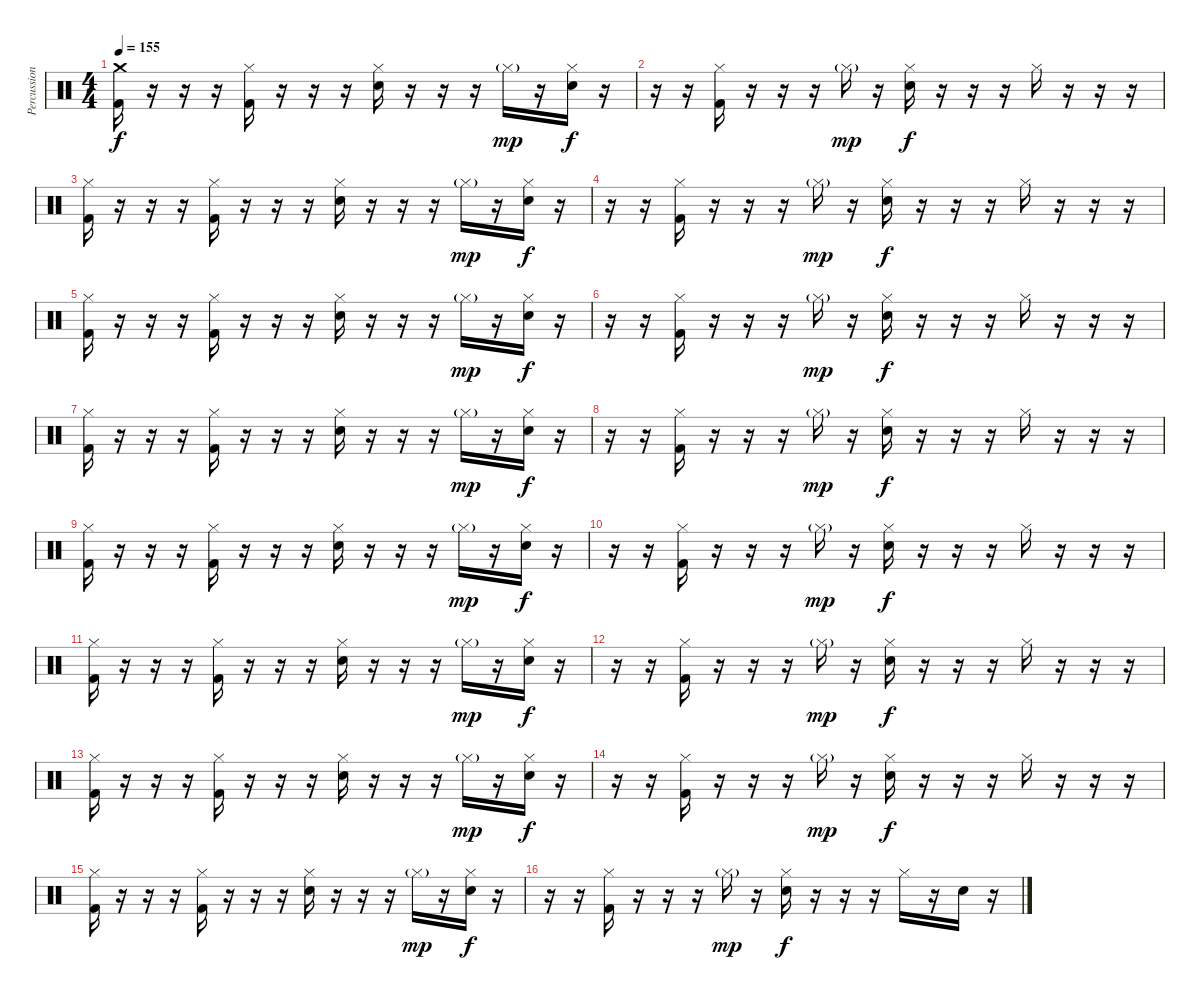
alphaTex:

\track ("Percussion" "Percussion") {instrument percussion}
\staff {score}
\articulation defaults
\ts (4 4)
\section ("" "")
\tempo 155
\clef neutral
\ks c
("Crash medium (hit)" "Kick (hit) 2").16{dy f} r.16 r.16 r.16 ("Hi-Hat (closed)" "Kick (hit) 2").16 r.16 r.16 r.16 ("Hi-Hat (closed)" "Electric Snare (hit)").16 r.16 r.16 r.16 "Hi-Hat (closed)"{g}.16{dy mp} r.16 ("Hi-Hat (closed)" "Electric Snare (hit)").16{dy f} r.16 |
r.16 r.16 ("Hi-Hat (closed)" "Kick (hit) 2").16 r.16 r.16 r.16 "Hi-Hat (closed)"{g}.16{dy mp} r.16 ("Hi-Hat (closed)" "Electric Snare (hit)").16{dy f} r.16 r.16 r.16 "Hi-Hat (closed)".16 r.16 r.16 r.16 |
("Hi-Hat (closed)" "Kick (hit) 2").16 r.16 r.16 r.16 ("Hi-Hat (closed)" "Kick (hit) 2").16 r.16 r.16 r.16 ("Hi-Hat (closed)" "Electric Snare (hit)").16 r.16 r.16 r.16 "Hi-Hat (closed)"{g}.16{dy mp} r.16 ("Hi-Hat (closed)" "Electric Snare (hit)").16{dy f} r.16 |
r.16 r.16 ("Hi-Hat (closed)" "Kick (hit) 2").16 r.16 r.16 r.16 "Hi-Hat (closed)"{g}.16{dy mp} r.16 ("Hi-Hat (closed)" "Electric Snare (hit)").16{dy f} r.16 r.16 r.16 "Hi-Hat (closed)".16 r.16 r.16 r.16 |
("Hi-Hat (closed)" "Kick (hit) 2").16 r.16 r.16 r.16 ("Hi-Hat (closed)" "Kick (hit) 2").16 r.16 r.16 r.16 ("Hi-Hat (closed)" "Electric Snare (hit)").16 r.16 r.16 r.16 "Hi-Hat (closed)"{g}.16{dy mp} r.16 ("Hi-Hat (closed)" "Electric Snare (hit)").16{dy f} r.16 |
r.16 r.16 ("Hi-Hat (closed)" "Kick (hit) 2").16 r.16 r.16 r.16 "Hi-Hat (closed)"{g}.16{dy mp} r.16 ("Hi-Hat (closed)" "Electric Snare (hit)").16{dy f} r.16 r.16 r.16 "Hi-Hat (closed)".16 r.16 r.16 r.16 |
("Hi-Hat (closed)" "Kick (hit) 2").16 r.16 r.16 r.16 ("Hi-Hat (closed)" "Kick (hit) 2").16 r.16 r.16 r.16 ("Hi-Hat (closed)" "Electric Snare (hit)").16 r.16 r.16 r.16 "Hi-Hat (closed)"{g}.16{dy mp} r.16 ("Hi-Hat (closed)" "Electric Snare (hit)").16{dy f} r.16 |
r.16 r.16 ("Hi-Hat (closed)" "Kick (hit) 2").16 r.16 r.16 r.16 "Hi-Hat (closed)"{g}.16{dy mp} r.16 ("Hi-Hat (closed)" "Electric Snare (hit)").16{dy f} r.16 r.16 r.16 "Hi-Hat (closed)".16 r.16 r.16 r.16 |
("Hi-Hat (closed)" "Kick (hit) 2").16 r.16 r.16 r.16 ("Hi-Hat (closed)" "Kick (hit) 2").16 r.16 r.16 r.16 ("Hi-Hat (closed)" "Electric Snare (hit)").16 r.16 r.16 r.16 "Hi-Hat (closed)"{g}.16{dy mp} r.16 ("Hi-Hat (closed)" "Electric Snare (hit)").16{dy f} r.16 |
r.16 r.16 ("Hi-Hat (closed)" "Kick (hit) 2").16 r.16 r.16 r.16 "Hi-Hat (closed)"{g}.16{dy mp} r.16 ("Hi-Hat (closed)" "Electric Snare (hit)").16{dy f} r.16 r.16 r.16 "Hi-Hat (closed)".16 r.16 r.16 r.16 |
("Hi-Hat (closed)" "Kick (hit) 2").16 r.16 r.16 r.16 ("Hi-Hat (closed)" "Kick (hit) 2").16 r.16 r.16 r.16 ("Hi-Hat (closed)" "Electric Snare (hit)").16 r.16 r.16 r.16 "Hi-Hat (closed)"{g}.16{dy mp} r.16 ("Hi-Hat (closed)" "Electric Snare (hit)").16{dy f} r.16 |
r.16 r.16 ("Hi-Hat (closed)" "Kick (hit) 2").16 r.16 r.16 r.16 "Hi-Hat (closed)"{g}.16{dy mp} r.16 ("Hi-Hat (closed)" "Electric Snare (hit)").16{dy f} r.16 r.16 r.16 "Hi-Hat (closed)".16 r.16 r.16 r.16 |
("Hi-Hat (closed)" "Kick (hit) 2").16 r.16 r.16 r.16 ("Hi-Hat (closed)" "Kick (hit) 2").16 r.16 r.16 r.16 ("Hi-Hat (closed)" "Electric Snare (hit)").16 r.16 r.16 r.16 "Hi-Hat (closed)"{g}.16{dy mp} r.16 ("Hi-Hat (closed)" "Electric Snare (hit)").16{dy f} r.16 |
r.16 r.16 ("Hi-Hat (closed)" "Kick (hit) 2").16 r.16 r.16 r.16 "Hi-Hat (closed)"{g}.16{dy mp} r.16 ("Hi-Hat (closed)" "Electric Snare (hit)").16{dy f} r.16 r.16 r.16 "Hi-Hat (closed)".16 r.16 r.16 r.16 |
("Hi-Hat (closed)" "Kick (hit) 2").16 r.16 r.16 r.16 ("Hi-Hat (closed)" "Kick (hit) 2").16 r.16 r.16 r.16 ("Hi-Hat (closed)" "Electric Snare (hit)").16 r.16 r.16 r.16 "Hi-Hat (closed)"{g}.16{dy mp} r.16 ("Hi-Hat (closed)" "Electric Snare (hit)").16{dy f} r.16 |
r.16 r.16 ("Hi-Hat (closed)" "Kick (hit) 2").16 r.16 r.16 r.16 "Hi-Hat (closed)"{g}.16{dy mp} r.16 ("Hi-Hat (closed)" "Electric Snare (hit)").16{dy f} r.16 r.16 r.16 "Hi-Hat (closed)".16 r.16 "Electric Snare (hit)".16 r.16
